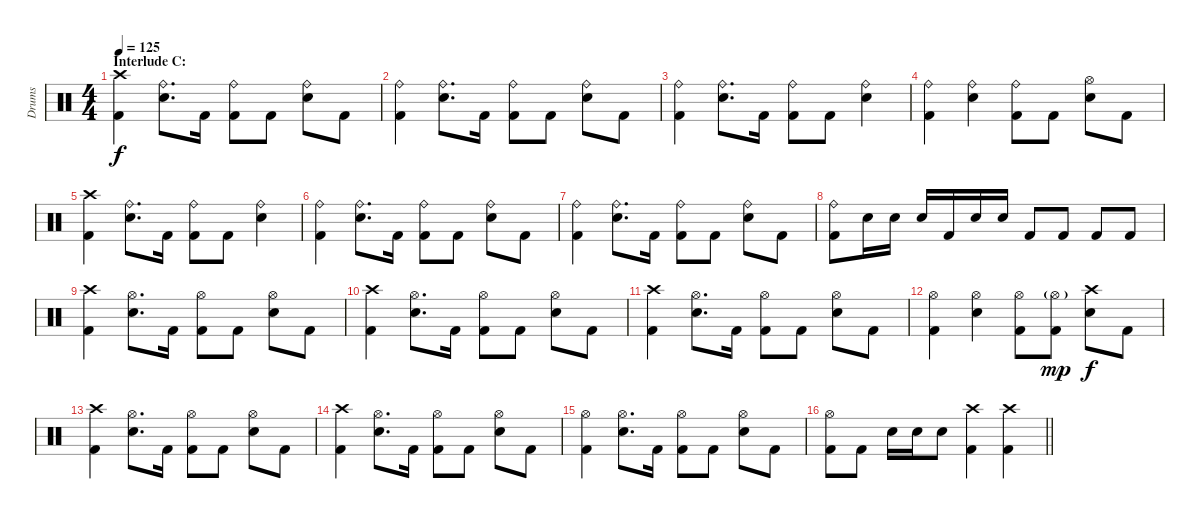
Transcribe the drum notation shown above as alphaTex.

\track ("Drums" "Drums") {instrument percussion}
\staff {score}
\articulation defaults
\ts (4 4)
\section ("" "Interlude C:")
\tempo 125
\clef neutral
\ks c
("Crash high (hit)" "Kick (hit) 2").4{dy f} ("Ride (bell)" "Electric Snare (hit)").8{d} "Kick (hit) 2".16 ("Ride (bell)" "Kick (hit) 2").8 "Kick (hit) 2".8 ("Ride (bell)" "Electric Snare (hit)").8 "Kick (hit) 2".8 |
("Ride (bell)" "Kick (hit) 2").4 ("Ride (bell)" "Electric Snare (hit)").8{d} "Kick (hit) 2".16 ("Ride (bell)" "Kick (hit) 2").8 "Kick (hit) 2".8 ("Ride (bell)" "Electric Snare (hit)").8 "Kick (hit) 2".8 |
("Ride (bell)" "Kick (hit) 2").4 ("Ride (bell)" "Electric Snare (hit)").8{d} "Kick (hit) 2".16 ("Ride (bell)" "Kick (hit) 2").8 "Kick (hit) 2".8 ("Ride (bell)" "Electric Snare (hit)").4 |
("Ride (bell)" "Kick (hit) 2").4 ("Ride (bell)" "Electric Snare (hit)").4 ("Ride (bell)" "Kick (hit) 2").8 "Kick (hit) 2".8 ("Hi-Hat (open)" "Electric Snare (hit)").8 "Kick (hit) 2".8 |
("Crash high (hit)" "Kick (hit) 2").4 ("Ride (bell)" "Electric Snare (hit)").8{d} "Kick (hit) 2".16 ("Ride (bell)" "Kick (hit) 2").8 "Kick (hit) 2".8 ("Ride (bell)" "Electric Snare (hit)").4 |
("Ride (bell)" "Kick (hit) 2").4 ("Ride (bell)" "Electric Snare (hit)").8{d} "Kick (hit) 2".16 ("Ride (bell)" "Kick (hit) 2").8 "Kick (hit) 2".8 ("Ride (bell)" "Electric Snare (hit)").8 "Kick (hit) 2".8 |
("Ride (bell)" "Kick (hit) 2").4 ("Ride (bell)" "Electric Snare (hit)").8{d} "Kick (hit) 2".16 ("Ride (bell)" "Kick (hit) 2").8 "Kick (hit) 2".8 ("Ride (bell)" "Electric Snare (hit)").8 "Kick (hit) 2".8 |
("Ride (bell)" "Kick (hit) 2").8 "Electric Snare (hit)".16 "Electric Snare (hit)".16 "Electric Snare (hit)".16 "Kick (hit) 2".16 "Electric Snare (hit)".16 "Electric Snare (hit)".16 "Kick (hit) 2".8 "Kick (hit) 2".8 "Kick (hit) 2".8 "Kick (hit) 2".8 |
("Crash high (hit)" "Kick (hit) 2").4 ("Hi-Hat (open)" "Electric Snare (hit)").8{d} "Kick (hit) 2".16 ("Hi-Hat (open)" "Kick (hit) 2").8 "Kick (hit) 2".8 ("Hi-Hat (open)" "Electric Snare (hit)").8 "Kick (hit) 2".8 |
("Crash high (hit)" "Kick (hit) 2").4 ("Hi-Hat (open)" "Electric Snare (hit)").8{d} "Kick (hit) 2".16 ("Hi-Hat (open)" "Kick (hit) 2").8 "Kick (hit) 2".8 ("Hi-Hat (open)" "Electric Snare (hit)").8 "Kick (hit) 2".8 |
("Crash high (hit)" "Kick (hit) 2").4 ("Hi-Hat (open)" "Electric Snare (hit)").8{d} "Kick (hit) 2".16 ("Hi-Hat (open)" "Kick (hit) 2").8 "Kick (hit) 2".8 ("Hi-Hat (open)" "Electric Snare (hit)").8 "Kick (hit) 2".8 |
("Hi-Hat (open)" "Kick (hit) 2").4 ("Hi-Hat (open)" "Electric Snare (hit)").4 ("Hi-Hat (open)" "Kick (hit) 2").8 ("Hi-Hat (open)"{g} "Kick (hit) 2").8{dy mp} ("Crash high (hit)" "Electric Snare (hit)").8{dy f} "Kick (hit) 2".8 |
("Crash high (hit)" "Kick (hit) 2").4 ("Hi-Hat (open)" "Electric Snare (hit)").8{d} "Kick (hit) 2".16 ("Hi-Hat (open)" "Kick (hit) 2").8 "Kick (hit) 2".8 ("Hi-Hat (open)" "Electric Snare (hit)").8 "Kick (hit) 2".8 |
("Crash high (hit)" "Kick (hit) 2").4 ("Hi-Hat (open)" "Electric Snare (hit)").8{d} "Kick (hit) 2".16 ("Hi-Hat (open)" "Kick (hit) 2").8 "Kick (hit) 2".8 ("Hi-Hat (open)" "Electric Snare (hit)").8 "Kick (hit) 2".8 |
("Hi-Hat (open)" "Kick (hit) 2").4 ("Hi-Hat (open)" "Electric Snare (hit)").8{d} "Kick (hit) 2".16 ("Hi-Hat (open)" "Kick (hit) 2").8 "Kick (hit) 2".8 ("Hi-Hat (open)" "Electric Snare (hit)").8 "Kick (hit) 2".8 |
\barLineRight lightlight
("Hi-Hat (open)" "Kick (hit) 2").8 "Kick (hit) 2".8 "Electric Snare (hit)".16 "Electric Snare (hit)".16 "Electric Snare (hit)".8 ("Crash high (hit)" "Kick (hit) 2").4 ("Crash high (hit)" "Kick (hit) 2").4
